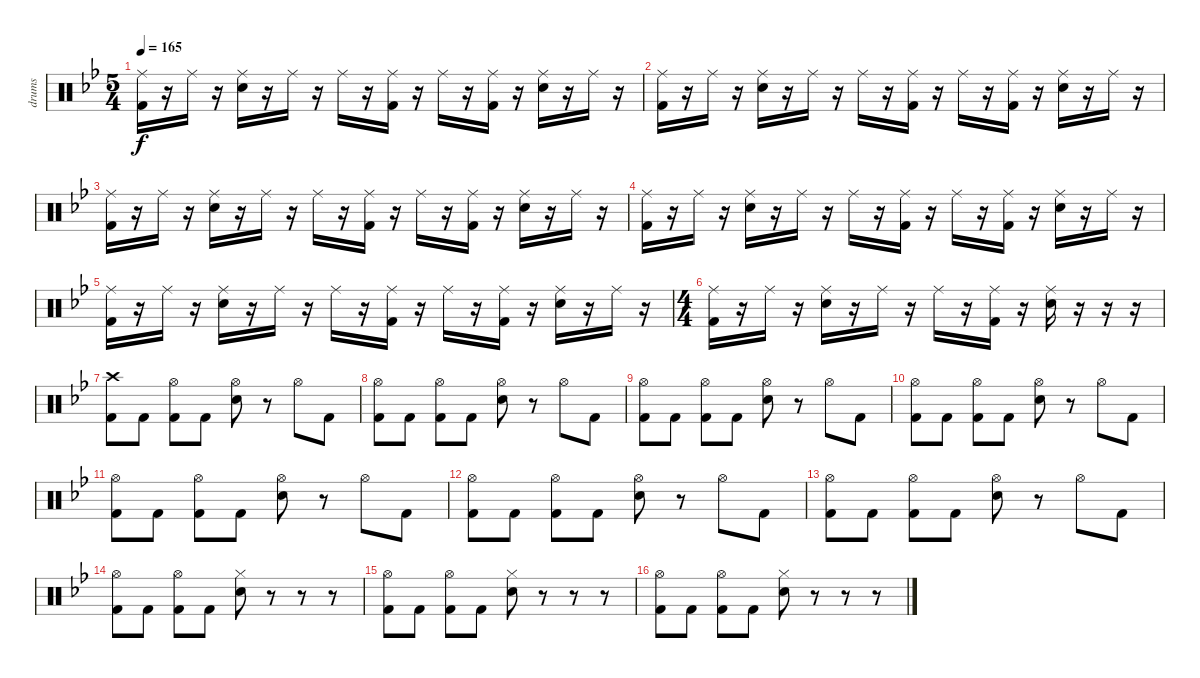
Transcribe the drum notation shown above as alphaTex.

\track ("drums" "drums") {instrument percussion}
\staff {score}
\articulation defaults
\ts (5 4)
\tempo 165
\clef neutral
\ks bb
("Ride (middle)" "Kick (hit) 2").16{dy f} r.16 "Ride (middle)".16 r.16 ("Ride (middle)" "Snare (hit) 2").16 r.16 "Ride (middle)".16 r.16 "Ride (middle)".16 r.16 ("Ride (middle)" "Kick (hit) 2").16 r.16 "Ride (middle)".16 r.16 ("Ride (middle)" "Kick (hit) 2").16 r.16 ("Ride (middle)" "Snare (hit) 2").16 r.16 "Ride (middle)".16 r.16 |
("Ride (middle)" "Kick (hit) 2").16 r.16 "Ride (middle)".16 r.16 ("Ride (middle)" "Snare (hit) 2").16 r.16 "Ride (middle)".16 r.16 "Ride (middle)".16 r.16 ("Ride (middle)" "Kick (hit) 2").16 r.16 "Ride (middle)".16 r.16 ("Ride (middle)" "Kick (hit) 2").16 r.16 ("Ride (middle)" "Snare (hit) 2").16 r.16 "Ride (middle)".16 r.16 |
("Ride (middle)" "Kick (hit) 2").16 r.16 "Ride (middle)".16 r.16 ("Ride (middle)" "Snare (hit) 2").16 r.16 "Ride (middle)".16 r.16 "Ride (middle)".16 r.16 ("Ride (middle)" "Kick (hit) 2").16 r.16 "Ride (middle)".16 r.16 ("Ride (middle)" "Kick (hit) 2").16 r.16 ("Ride (middle)" "Snare (hit) 2").16 r.16 "Ride (middle)".16 r.16 |
("Ride (middle)" "Kick (hit) 2").16 r.16 "Ride (middle)".16 r.16 ("Ride (middle)" "Snare (hit) 2").16 r.16 "Ride (middle)".16 r.16 "Ride (middle)".16 r.16 ("Ride (middle)" "Kick (hit) 2").16 r.16 "Ride (middle)".16 r.16 ("Ride (middle)" "Kick (hit) 2").16 r.16 ("Ride (middle)" "Snare (hit) 2").16 r.16 "Ride (middle)".16 r.16 |
("Ride (middle)" "Kick (hit) 2").16 r.16 "Ride (middle)".16 r.16 ("Ride (middle)" "Snare (hit) 2").16 r.16 "Ride (middle)".16 r.16 "Ride (middle)".16 r.16 ("Ride (middle)" "Kick (hit) 2").16 r.16 "Ride (middle)".16 r.16 ("Ride (middle)" "Kick (hit) 2").16 r.16 ("Ride (middle)" "Snare (hit) 2").16 r.16 "Ride (middle)".16 r.16 |
\ts (4 4)
("Ride (middle)" "Kick (hit) 2").16 r.16 "Ride (middle)".16 r.16 ("Ride (middle)" "Snare (hit) 2").16 r.16 "Ride (middle)".16 r.16 "Ride (middle)".16 r.16 ("Ride (middle)" "Kick (hit) 2").16 r.16 ("Ride (middle)" "Snare (hit) 2").16 r.16 r.16 r.16 |
("Crash high (hit)" "Kick (hit) 2").8 "Kick (hit) 2".8 ("Hi-Hat (open)" "Kick (hit) 2").8 "Kick (hit) 2".8 ("Hi-Hat (open)" "Snare (hit) 2").8 r.8 "Hi-Hat (open)".8 "Kick (hit) 2".8 |
("Hi-Hat (open)" "Kick (hit) 2").8 "Kick (hit) 2".8 ("Hi-Hat (open)" "Kick (hit) 2").8 "Kick (hit) 2".8 ("Hi-Hat (open)" "Snare (hit) 2").8 r.8 "Hi-Hat (open)".8 "Kick (hit) 2".8 |
("Hi-Hat (open)" "Kick (hit) 2").8 "Kick (hit) 2".8 ("Hi-Hat (open)" "Kick (hit) 2").8 "Kick (hit) 2".8 ("Hi-Hat (open)" "Snare (hit) 2").8 r.8 "Hi-Hat (open)".8 "Kick (hit) 2".8 |
("Hi-Hat (open)" "Kick (hit) 2").8 "Kick (hit) 2".8 ("Hi-Hat (open)" "Kick (hit) 2").8 "Kick (hit) 2".8 ("Hi-Hat (open)" "Snare (hit) 2").8 r.8 "Hi-Hat (open)".8 "Kick (hit) 2".8 |
("Hi-Hat (open)" "Kick (hit) 2").8 "Kick (hit) 2".8 ("Hi-Hat (open)" "Kick (hit) 2").8 "Kick (hit) 2".8 ("Hi-Hat (open)" "Snare (hit) 2").8 r.8 "Hi-Hat (open)".8 "Kick (hit) 2".8 |
("Hi-Hat (open)" "Kick (hit) 2").8 "Kick (hit) 2".8 ("Hi-Hat (open)" "Kick (hit) 2").8 "Kick (hit) 2".8 ("Hi-Hat (open)" "Snare (hit) 2").8 r.8 "Hi-Hat (open)".8 "Kick (hit) 2".8 |
("Hi-Hat (open)" "Kick (hit) 2").8 "Kick (hit) 2".8 ("Hi-Hat (open)" "Kick (hit) 2").8 "Kick (hit) 2".8 ("Hi-Hat (open)" "Snare (hit) 2").8 r.8 "Hi-Hat (open)".8 "Kick (hit) 2".8 |
("Hi-Hat (open)" "Kick (hit) 2").8 "Kick (hit) 2".8 ("Hi-Hat (open)" "Kick (hit) 2").8 "Kick (hit) 2".8 ("Hi-Hat (closed)" "Snare (hit) 2").8 r.8 r.8 r.8 |
("Hi-Hat (open)" "Kick (hit) 2").8 "Kick (hit) 2".8 ("Hi-Hat (open)" "Kick (hit) 2").8 "Kick (hit) 2".8 ("Hi-Hat (closed)" "Snare (hit) 2").8 r.8 r.8 r.8 |
("Hi-Hat (open)" "Kick (hit) 2").8 "Kick (hit) 2".8 ("Hi-Hat (open)" "Kick (hit) 2").8 "Kick (hit) 2".8 ("Hi-Hat (closed)" "Snare (hit) 2").8 r.8 r.8 r.8
